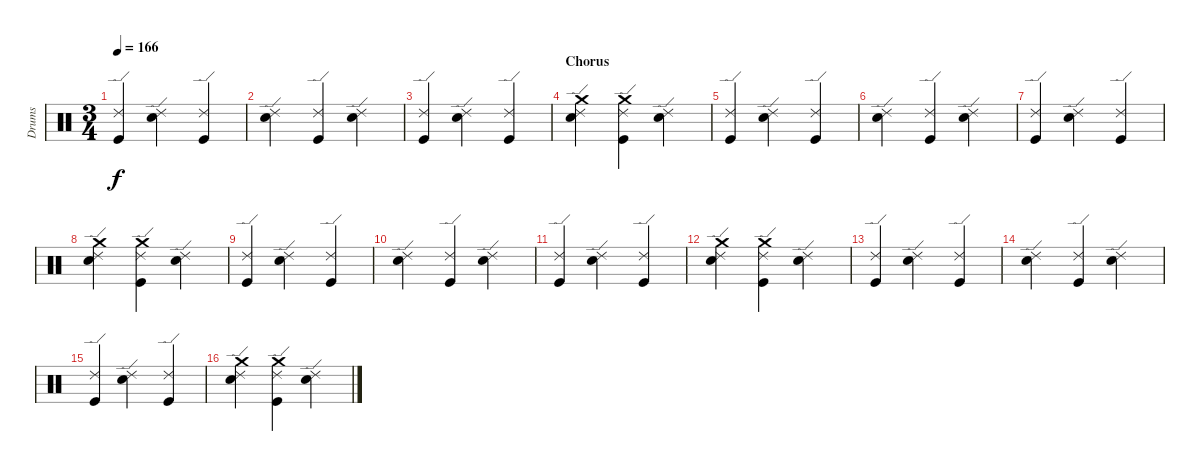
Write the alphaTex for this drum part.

\track ("Drums" "Drums") {instrument percussion}
\staff {score}
\articulation defaults
\ts (3 4)
\tempo 166
\clef neutral
\ks c
("Ride (edge) 2" "Kick (hit)").4{dy f} ("Ride (edge) 2" "Snare (hit) 2").4 ("Ride (edge) 2" "Kick (hit)").4 |
("Ride (edge) 2" "Snare (hit) 2").4 ("Ride (edge) 2" "Kick (hit)").4 ("Ride (edge) 2" "Snare (hit) 2").4 |
("Ride (edge) 2" "Kick (hit)").4 ("Ride (edge) 2" "Snare (hit) 2").4 ("Ride (edge) 2" "Kick (hit)").4 |
\section ("" "Chorus")
("Ride (edge) 2" "Snare (hit) 2" "Crash medium (hit)").4 ("Ride (edge) 2" "Kick (hit)" "Crash medium (hit)").4 ("Ride (edge) 2" "Snare (hit) 2").4 |
("Ride (edge) 2" "Kick (hit)").4 ("Ride (edge) 2" "Snare (hit) 2").4 ("Ride (edge) 2" "Kick (hit)").4 |
("Ride (edge) 2" "Snare (hit) 2").4 ("Ride (edge) 2" "Kick (hit)").4 ("Ride (edge) 2" "Snare (hit) 2").4 |
("Ride (edge) 2" "Kick (hit)").4 ("Ride (edge) 2" "Snare (hit) 2").4 ("Ride (edge) 2" "Kick (hit)").4 |
("Ride (edge) 2" "Snare (hit) 2" "Crash medium (hit)").4 ("Ride (edge) 2" "Kick (hit)" "Crash medium (hit)").4 ("Ride (edge) 2" "Snare (hit) 2").4 |
("Ride (edge) 2" "Kick (hit)").4 ("Ride (edge) 2" "Snare (hit) 2").4 ("Ride (edge) 2" "Kick (hit)").4 |
("Ride (edge) 2" "Snare (hit) 2").4 ("Ride (edge) 2" "Kick (hit)").4 ("Ride (edge) 2" "Snare (hit) 2").4 |
("Ride (edge) 2" "Kick (hit)").4 ("Ride (edge) 2" "Snare (hit) 2").4 ("Ride (edge) 2" "Kick (hit)").4 |
("Ride (edge) 2" "Snare (hit) 2" "Crash medium (hit)").4 ("Ride (edge) 2" "Kick (hit)" "Crash medium (hit)").4 ("Ride (edge) 2" "Snare (hit) 2").4 |
("Ride (edge) 2" "Kick (hit)").4 ("Ride (edge) 2" "Snare (hit) 2").4 ("Ride (edge) 2" "Kick (hit)").4 |
("Ride (edge) 2" "Snare (hit) 2").4 ("Ride (edge) 2" "Kick (hit)").4 ("Ride (edge) 2" "Snare (hit) 2").4 |
("Ride (edge) 2" "Kick (hit)").4 ("Ride (edge) 2" "Snare (hit) 2").4 ("Ride (edge) 2" "Kick (hit)").4 |
("Ride (edge) 2" "Snare (hit) 2" "Crash medium (hit)").4 ("Ride (edge) 2" "Kick (hit)" "Crash medium (hit)").4 ("Ride (edge) 2" "Snare (hit) 2").4
